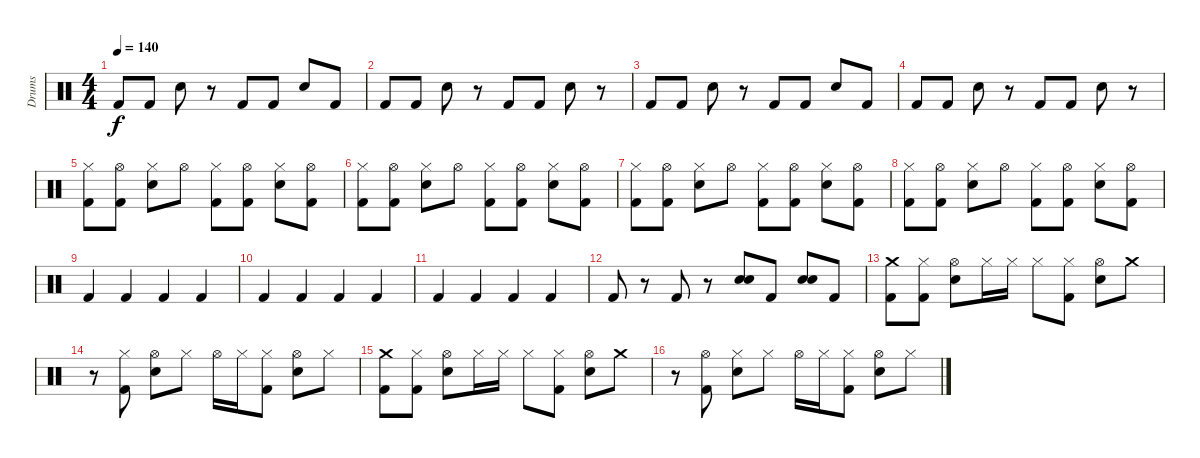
\track ("Drums" "Drums") {instrument percussion}
\staff {score}
\articulation defaults
\ts (4 4)
\tempo 140
\clef neutral
\ks c "Kick (hit) 2".8{dy f} "Kick (hit) 2".8 "Hand Clap (hit)".8
r.8 "Kick (hit) 2".8 "Kick (hit) 2".8 "Hand Clap (hit)".8 "Kick (hit) 2".8 |
"Kick (hit) 2".8 "Kick (hit) 2".8 "Hand Clap (hit)".8 r.8 "Kick (hit) 2".8 "Kick (hit) 2".8 "Hand Clap (hit)".8 r.8 |
"Kick (hit) 2".8 "Kick (hit) 2".8 "Hand Clap (hit)".8 r.8 "Kick (hit) 2".8 "Kick (hit) 2".8 "Hand Clap (hit)".8 "Kick (hit) 2".8 |
"Kick (hit) 2".8 "Kick (hit) 2".8 "Hand Clap (hit)".8 r.8 "Kick (hit) 2".8 "Kick (hit) 2".8 "Hand Clap (hit)".8 r.8 |
("Hi-Hat (closed)" "Kick (hit) 2").8 ("Hi-Hat (open)" "Kick (hit) 2").8 ("Hi-Hat (closed)" "Electric Snare (hit)").8 "Hi-Hat (open)".8 ("Hi-Hat (closed)" "Kick (hit) 2").8 ("Hi-Hat (open)" "Kick (hit) 2").8 ("Hi-Hat (closed)" "Electric Snare (hit)").8 ("Hi-Hat (open)" "Kick (hit) 2").8 |
("Hi-Hat (closed)" "Kick (hit) 2").8 ("Hi-Hat (open)" "Kick (hit) 2").8 ("Hi-Hat (closed)" "Electric Snare (hit)").8 "Hi-Hat (open)".8 ("Hi-Hat (closed)" "Kick (hit) 2").8 ("Hi-Hat (open)" "Kick (hit) 2").8 ("Hi-Hat (closed)" "Electric Snare (hit)").8 ("Hi-Hat (open)" "Kick (hit) 2").8 |
("Hi-Hat (closed)" "Kick (hit) 2").8 ("Hi-Hat (open)" "Kick (hit) 2").8 ("Hi-Hat (closed)" "Electric Snare (hit)").8 "Hi-Hat (open)".8 ("Hi-Hat (closed)" "Kick (hit) 2").8 ("Hi-Hat (open)" "Kick (hit) 2").8 ("Hi-Hat (closed)" "Electric Snare (hit)").8 ("Hi-Hat (open)" "Kick (hit) 2").8 |
("Hi-Hat (closed)" "Kick (hit) 2").8 ("Hi-Hat (open)" "Kick (hit) 2").8 ("Hi-Hat (closed)" "Electric Snare (hit)").8 "Hi-Hat (open)".8 ("Hi-Hat (closed)" "Kick (hit) 2").8 ("Hi-Hat (open)" "Kick (hit) 2").8 ("Hi-Hat (closed)" "Electric Snare (hit)").8 ("Hi-Hat (open)" "Kick (hit) 2").8 |
"Kick (hit) 2".4 "Kick (hit) 2".4 "Kick (hit) 2".4 "Kick (hit) 2".4 |
"Kick (hit) 2".4 "Kick (hit) 2".4 "Kick (hit) 2".4 "Kick (hit) 2".4 |
"Kick (hit) 2".4 "Kick (hit) 2".4 "Kick (hit) 2".4 "Kick (hit) 2".4 |
"Kick (hit) 2".8 r.8 "Kick (hit) 2".8 r.8 ("Electric Snare (hit)" "Electric Snare (hit)").8 "Kick (hit) 2".8 ("Electric Snare (hit)" "Electric Snare (hit)").8 "Kick (hit) 2".8 |
("Crash medium (hit)" "Kick (hit) 2").8 ("Hi-Hat (closed)" "Kick (hit) 2").8 ("Hi-Hat (open)" "Electric Snare (hit)").8 "Hi-Hat (closed)".16 "Hi-Hat (closed)".16 "Hi-Hat (closed)".8 ("Hi-Hat (closed)" "Kick (hit) 2").8 ("Hi-Hat (open)" "Electric Snare (hit)").8 "Crash medium (hit)".8 |
r.8 ("Hi-Hat (closed)" "Kick (hit) 2").8 ("Hi-Hat (open)" "Electric Snare (hit)").8 "Hi-Hat (closed)".8 "Hi-Hat (open)".16 "Hi-Hat (closed)".16 ("Hi-Hat (closed)" "Kick (hit) 2").8 ("Hi-Hat (open)" "Electric Snare (hit)").8 "Hi-Hat (closed)".8 |
("Crash medium (hit)" "Kick (hit) 2").8 ("Hi-Hat (closed)" "Kick (hit) 2").8 ("Hi-Hat (open)" "Electric Snare (hit)").8 "Hi-Hat (closed)".16 "Hi-Hat (closed)".16 "Hi-Hat (closed)".8 ("Hi-Hat (closed)" "Kick (hit) 2").8 ("Hi-Hat (open)" "Electric Snare (hit)").8 "Crash medium (hit)".8 |
r.8 ("Hi-Hat (open)" "Kick (hit) 2").8 ("Hi-Hat (closed)" "Electric Snare (hit)").8 "Hi-Hat (closed)".8 "Hi-Hat (open)".16 "Hi-Hat (closed)".16 ("Hi-Hat (closed)" "Kick (hit) 2").8 ("Hi-Hat (open)" "Electric Snare (hit)").8 "Hi-Hat (closed)".8
